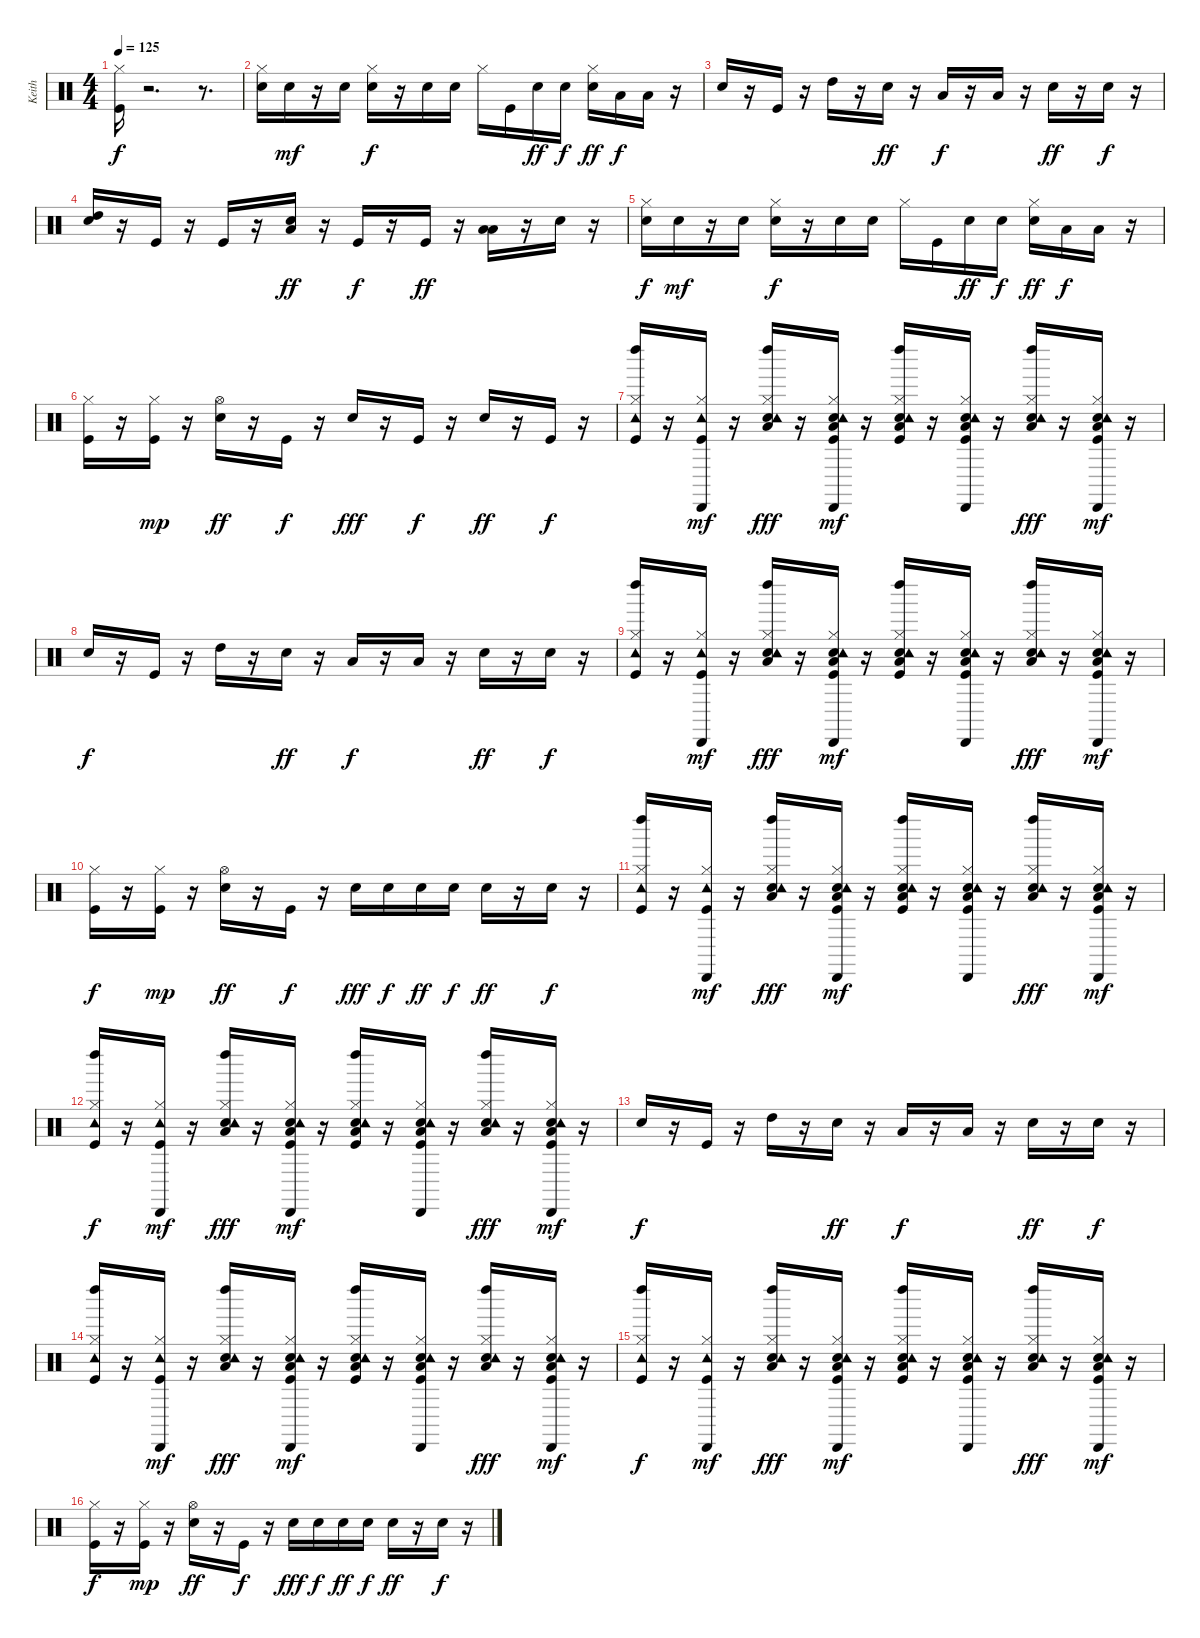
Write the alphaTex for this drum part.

\track ("Keith" "Keith") {instrument percussion}
\staff {score}
\articulation defaults
\ts (4 4)
\tempo 125
\clef neutral
\ks c
("Kick (hit)" "Hi-Hat (closed)").16{dy f} r.2{d} r.8{d} |
("Snare (hit) 2" "Hi-Hat (closed)").16 "Snare (hit) 2".16{dy mf} r.16 "Snare (hit) 2".16 ("Snare (hit) 2" "Hi-Hat (closed)").16{dy f} r.16 "Snare (hit) 2".16 "Snare (hit) 2".16 "Hi-Hat (closed)".16 "Kick (hit)".16 "Snare (hit) 2".16{dy ff} "Snare (hit) 2".16{dy f} ("Snare (hit) 2" "Hi-Hat (closed)").16{dy ff} "Low Tom (hit)".16{dy f} "Low Floor Tom (hit)".16 r.16 |
"Snare (hit) 2".16 r.16 "Kick (hit)".16 r.16 "High Tom (hit)".16 r.16 "Snare (hit) 2".16{dy ff} r.16 "Low Tom (hit)".16{dy f} r.16 "Low Tom (hit)".16 r.16 "Snare (hit) 2".16{dy ff} r.16 "Snare (hit) 2".16{dy f} r.16 |
("Snare (hit) 2" "High Tom (hit)").16 r.16 "Kick (hit)".16 r.16 "Kick (hit)".16 r.16 ("Snare (hit) 2" "Low Tom (hit)").16{dy ff} r.16 "Kick (hit)".16{dy f} r.16 "Kick (hit)".16{dy ff} r.16 ("Low Floor Tom (hit)" "Low Tom (hit)").16 r.16 "Snare (hit) 2".16 r.16 |
("Snare (hit) 2" "Hi-Hat (closed)").16{dy f} "Snare (hit) 2".16{dy mf} r.16 "Snare (hit) 2".16 ("Snare (hit) 2" "Hi-Hat (closed)").16{dy f} r.16 "Snare (hit) 2".16 "Snare (hit) 2".16 "Hi-Hat (closed)".16 "Kick (hit)".16 "Snare (hit) 2".16{dy ff} "Snare (hit) 2".16{dy f} ("Snare (hit) 2" "Hi-Hat (closed)").16{dy ff} "Low Tom (hit)".16{dy f} "Low Floor Tom (hit)".16 r.16 |
("Kick (hit)" "Hi-Hat (closed)").16 r.16 ("Kick (hit)" "Hi-Hat (closed)").16{dy mp} r.16 ("Snare (hit) 2" "Hi-Hat (open)").16{dy ff} r.16 "Kick (hit)".16{dy f} r.16 "Snare (hit) 2".16{dy fff} r.16 "Kick (hit)".16{dy f} r.16 "Snare (hit) 2".16{dy ff} r.16 "Kick (hit)".16{dy f} r.16 |
("Kick (hit)" "Hi-Hat (closed)" "Tambourine (hit)" "Left Maraca (hit)").16 r.16 ("Kick (hit)" "Hi-Hat (closed)" "Tambourine (hit)" "Cabasa (hit)").16{dy mf} r.16 ("Snare (hit) 2" "Hi-Hat (closed)" "Low Floor Tom (hit)" "Tambourine (hit)" "Left Maraca (hit)").16{dy fff} r.16 ("Kick (hit)" "Snare (hit) 2" "Hi-Hat (closed)" "Low Floor Tom (hit)" "Tambourine (hit)" "Cabasa (hit)").16{dy mf} r.16 ("Kick (hit)" "Snare (hit) 2" "Hi-Hat (closed)" "Low Floor Tom (hit)" "Tambourine (hit)" "Left Maraca (hit)").16 r.16 ("Kick (hit)" "Snare (hit) 2" "Hi-Hat (closed)" "Low Floor Tom (hit)" "Tambourine (hit)" "Cabasa (hit)").16 r.16 ("Snare (hit) 2" "Hi-Hat (closed)" "Low Floor Tom (hit)" "Tambourine (hit)" "Left Maraca (hit)").16{dy fff} r.16 ("Kick (hit)" "Snare (hit) 2" "Hi-Hat (closed)" "Low Floor Tom (hit)" "Tambourine (hit)" "Cabasa (hit)").16{dy mf} r.16 |
"Snare (hit) 2".16{dy f} r.16 "Kick (hit)".16 r.16 "High Tom (hit)".16 r.16 "Snare (hit) 2".16{dy ff} r.16 "Low Tom (hit)".16{dy f} r.16 "Low Tom (hit)".16 r.16 "Snare (hit) 2".16{dy ff} r.16 "Snare (hit) 2".16{dy f} r.16 |
("Kick (hit)" "Hi-Hat (closed)" "Tambourine (hit)" "Left Maraca (hit)").16 r.16 ("Kick (hit)" "Hi-Hat (closed)" "Tambourine (hit)" "Cabasa (hit)").16{dy mf} r.16 ("Snare (hit) 2" "Hi-Hat (closed)" "Low Floor Tom (hit)" "Tambourine (hit)" "Left Maraca (hit)").16{dy fff} r.16 ("Kick (hit)" "Snare (hit) 2" "Hi-Hat (closed)" "Low Floor Tom (hit)" "Tambourine (hit)" "Cabasa (hit)").16{dy mf} r.16 ("Kick (hit)" "Snare (hit) 2" "Hi-Hat (closed)" "Low Floor Tom (hit)" "Tambourine (hit)" "Left Maraca (hit)").16 r.16 ("Kick (hit)" "Snare (hit) 2" "Hi-Hat (closed)" "Low Floor Tom (hit)" "Tambourine (hit)" "Cabasa (hit)").16 r.16 ("Snare (hit) 2" "Hi-Hat (closed)" "Low Floor Tom (hit)" "Tambourine (hit)" "Left Maraca (hit)").16{dy fff} r.16 ("Kick (hit)" "Snare (hit) 2" "Hi-Hat (closed)" "Low Floor Tom (hit)" "Tambourine (hit)" "Cabasa (hit)").16{dy mf} r.16 |
("Kick (hit)" "Hi-Hat (closed)").16{dy f} r.16 ("Kick (hit)" "Hi-Hat (closed)").16{dy mp} r.16 ("Snare (hit) 2" "Hi-Hat (open)").16{dy ff} r.16 "Kick (hit)".16{dy f} r.16 "Snare (hit) 2".16{dy fff} "Snare (hit) 2".16{dy f} "Snare (hit) 2".16{dy ff} "Snare (hit) 2".16{dy f} "Snare (hit) 2".16{dy ff} r.16 "Snare (hit) 2".16{dy f} r.16 |
("Kick (hit)" "Hi-Hat (closed)" "Tambourine (hit)" "Left Maraca (hit)").16 r.16 ("Kick (hit)" "Hi-Hat (closed)" "Tambourine (hit)" "Cabasa (hit)").16{dy mf} r.16 ("Snare (hit) 2" "Hi-Hat (closed)" "Low Floor Tom (hit)" "Tambourine (hit)" "Left Maraca (hit)").16{dy fff} r.16 ("Kick (hit)" "Snare (hit) 2" "Hi-Hat (closed)" "Low Floor Tom (hit)" "Tambourine (hit)" "Cabasa (hit)").16{dy mf} r.16 ("Kick (hit)" "Snare (hit) 2" "Hi-Hat (closed)" "Low Floor Tom (hit)" "Tambourine (hit)" "Left Maraca (hit)").16 r.16 ("Kick (hit)" "Snare (hit) 2" "Hi-Hat (closed)" "Low Floor Tom (hit)" "Tambourine (hit)" "Cabasa (hit)").16 r.16 ("Snare (hit) 2" "Hi-Hat (closed)" "Low Floor Tom (hit)" "Tambourine (hit)" "Left Maraca (hit)").16{dy fff} r.16 ("Kick (hit)" "Snare (hit) 2" "Hi-Hat (closed)" "Low Floor Tom (hit)" "Tambourine (hit)" "Cabasa (hit)").16{dy mf} r.16 |
("Kick (hit)" "Hi-Hat (closed)" "Tambourine (hit)" "Left Maraca (hit)").16{dy f} r.16 ("Kick (hit)" "Hi-Hat (closed)" "Tambourine (hit)" "Cabasa (hit)").16{dy mf} r.16 ("Snare (hit) 2" "Hi-Hat (closed)" "Low Floor Tom (hit)" "Tambourine (hit)" "Left Maraca (hit)").16{dy fff} r.16 ("Kick (hit)" "Snare (hit) 2" "Hi-Hat (closed)" "Low Floor Tom (hit)" "Tambourine (hit)" "Cabasa (hit)").16{dy mf} r.16 ("Kick (hit)" "Snare (hit) 2" "Hi-Hat (closed)" "Low Floor Tom (hit)" "Tambourine (hit)" "Left Maraca (hit)").16 r.16 ("Kick (hit)" "Snare (hit) 2" "Hi-Hat (closed)" "Low Floor Tom (hit)" "Tambourine (hit)" "Cabasa (hit)").16 r.16 ("Snare (hit) 2" "Hi-Hat (closed)" "Low Floor Tom (hit)" "Tambourine (hit)" "Left Maraca (hit)").16{dy fff} r.16 ("Kick (hit)" "Snare (hit) 2" "Hi-Hat (closed)" "Low Floor Tom (hit)" "Tambourine (hit)" "Cabasa (hit)").16{dy mf} r.16 |
"Snare (hit) 2".16{dy f} r.16 "Kick (hit)".16 r.16 "High Tom (hit)".16 r.16 "Snare (hit) 2".16{dy ff} r.16 "Low Tom (hit)".16{dy f} r.16 "Low Tom (hit)".16 r.16 "Snare (hit) 2".16{dy ff} r.16 "Snare (hit) 2".16{dy f} r.16 |
("Kick (hit)" "Hi-Hat (closed)" "Tambourine (hit)" "Left Maraca (hit)").16 r.16 ("Kick (hit)" "Hi-Hat (closed)" "Tambourine (hit)" "Cabasa (hit)").16{dy mf} r.16 ("Snare (hit) 2" "Hi-Hat (closed)" "Low Floor Tom (hit)" "Tambourine (hit)" "Left Maraca (hit)").16{dy fff} r.16 ("Kick (hit)" "Snare (hit) 2" "Hi-Hat (closed)" "Low Floor Tom (hit)" "Tambourine (hit)" "Cabasa (hit)").16{dy mf} r.16 ("Kick (hit)" "Snare (hit) 2" "Hi-Hat (closed)" "Low Floor Tom (hit)" "Tambourine (hit)" "Left Maraca (hit)").16 r.16 ("Kick (hit)" "Snare (hit) 2" "Hi-Hat (closed)" "Low Floor Tom (hit)" "Tambourine (hit)" "Cabasa (hit)").16 r.16 ("Snare (hit) 2" "Hi-Hat (closed)" "Low Floor Tom (hit)" "Tambourine (hit)" "Left Maraca (hit)").16{dy fff} r.16 ("Kick (hit)" "Snare (hit) 2" "Hi-Hat (closed)" "Low Floor Tom (hit)" "Tambourine (hit)" "Cabasa (hit)").16{dy mf} r.16 |
("Kick (hit)" "Hi-Hat (closed)" "Tambourine (hit)" "Left Maraca (hit)").16{dy f} r.16 ("Kick (hit)" "Hi-Hat (closed)" "Tambourine (hit)" "Cabasa (hit)").16{dy mf} r.16 ("Snare (hit) 2" "Hi-Hat (closed)" "Low Floor Tom (hit)" "Tambourine (hit)" "Left Maraca (hit)").16{dy fff} r.16 ("Kick (hit)" "Snare (hit) 2" "Hi-Hat (closed)" "Low Floor Tom (hit)" "Tambourine (hit)" "Cabasa (hit)").16{dy mf} r.16 ("Kick (hit)" "Snare (hit) 2" "Hi-Hat (closed)" "Low Floor Tom (hit)" "Tambourine (hit)" "Left Maraca (hit)").16 r.16 ("Kick (hit)" "Snare (hit) 2" "Hi-Hat (closed)" "Low Floor Tom (hit)" "Tambourine (hit)" "Cabasa (hit)").16 r.16 ("Snare (hit) 2" "Hi-Hat (closed)" "Low Floor Tom (hit)" "Tambourine (hit)" "Left Maraca (hit)").16{dy fff} r.16 ("Kick (hit)" "Snare (hit) 2" "Hi-Hat (closed)" "Low Floor Tom (hit)" "Tambourine (hit)" "Cabasa (hit)").16{dy mf} r.16 |
("Kick (hit)" "Hi-Hat (closed)").16{dy f} r.16 ("Kick (hit)" "Hi-Hat (closed)").16{dy mp} r.16 ("Snare (hit) 2" "Hi-Hat (open)").16{dy ff} r.16 "Kick (hit)".16{dy f} r.16 "Snare (hit) 2".16{dy fff} "Snare (hit) 2".16{dy f} "Snare (hit) 2".16{dy ff} "Snare (hit) 2".16{dy f} "Snare (hit) 2".16{dy ff} r.16 "Snare (hit) 2".16{dy f} r.16
